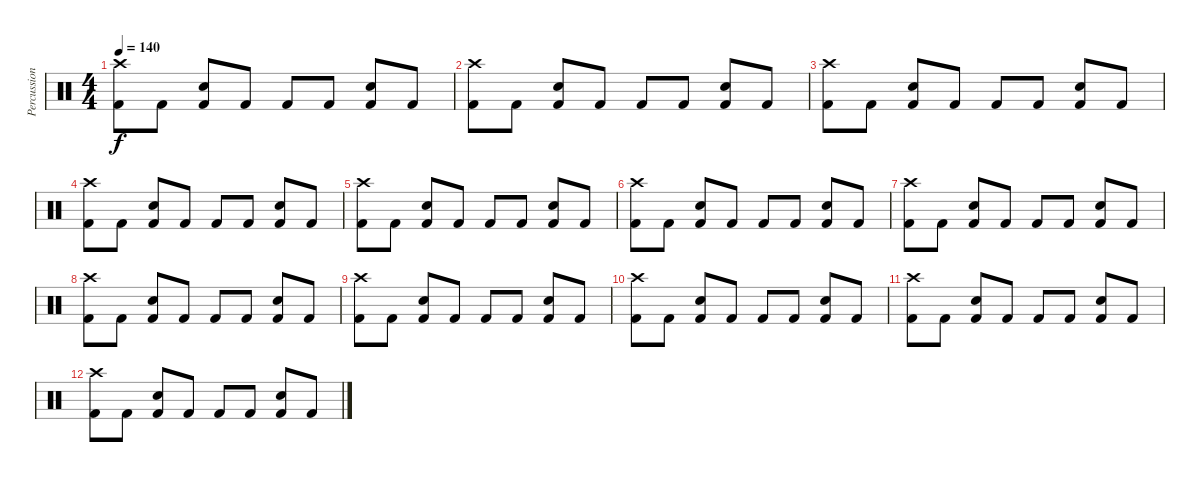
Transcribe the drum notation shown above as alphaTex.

\track ("Percussion" "Percussion") {instrument percussion}
\staff {score}
\articulation defaults
\ts (4 4)
\tempo 140
\clef neutral
\ks c
("Crash high (hit)" "Kick (hit) 2").8{dy f} "Kick (hit) 2".8 ("Snare (hit) 2" "Kick (hit) 2").8 "Kick (hit) 2".8 "Kick (hit) 2".8 "Kick (hit) 2".8 ("Snare (hit) 2" "Kick (hit) 2").8 "Kick (hit) 2".8 |
("Crash high (hit)" "Kick (hit) 2").8 "Kick (hit) 2".8 ("Snare (hit) 2" "Kick (hit) 2").8 "Kick (hit) 2".8 "Kick (hit) 2".8 "Kick (hit) 2".8 ("Snare (hit) 2" "Kick (hit) 2").8 "Kick (hit) 2".8 |
("Crash high (hit)" "Kick (hit) 2").8 "Kick (hit) 2".8 ("Snare (hit) 2" "Kick (hit) 2").8 "Kick (hit) 2".8 "Kick (hit) 2".8 "Kick (hit) 2".8 ("Snare (hit) 2" "Kick (hit) 2").8 "Kick (hit) 2".8 |
("Crash high (hit)" "Kick (hit) 2").8 "Kick (hit) 2".8 ("Snare (hit) 2" "Kick (hit) 2").8 "Kick (hit) 2".8 "Kick (hit) 2".8 "Kick (hit) 2".8 ("Snare (hit) 2" "Kick (hit) 2").8 "Kick (hit) 2".8 |
("Crash high (hit)" "Kick (hit) 2").8 "Kick (hit) 2".8 ("Snare (hit) 2" "Kick (hit) 2").8 "Kick (hit) 2".8 "Kick (hit) 2".8 "Kick (hit) 2".8 ("Snare (hit) 2" "Kick (hit) 2").8 "Kick (hit) 2".8 |
("Crash high (hit)" "Kick (hit) 2").8 "Kick (hit) 2".8 ("Snare (hit) 2" "Kick (hit) 2").8 "Kick (hit) 2".8 "Kick (hit) 2".8 "Kick (hit) 2".8 ("Snare (hit) 2" "Kick (hit) 2").8 "Kick (hit) 2".8 |
("Crash high (hit)" "Kick (hit) 2").8 "Kick (hit) 2".8 ("Snare (hit) 2" "Kick (hit) 2").8 "Kick (hit) 2".8 "Kick (hit) 2".8 "Kick (hit) 2".8 ("Snare (hit) 2" "Kick (hit) 2").8 "Kick (hit) 2".8 |
("Crash high (hit)" "Kick (hit) 2").8 "Kick (hit) 2".8 ("Snare (hit) 2" "Kick (hit) 2").8 "Kick (hit) 2".8 "Kick (hit) 2".8 "Kick (hit) 2".8 ("Snare (hit) 2" "Kick (hit) 2").8 "Kick (hit) 2".8 |
("Crash high (hit)" "Kick (hit) 2").8 "Kick (hit) 2".8 ("Snare (hit) 2" "Kick (hit) 2").8 "Kick (hit) 2".8 "Kick (hit) 2".8 "Kick (hit) 2".8 ("Snare (hit) 2" "Kick (hit) 2").8 "Kick (hit) 2".8 |
("Crash high (hit)" "Kick (hit) 2").8 "Kick (hit) 2".8 ("Snare (hit) 2" "Kick (hit) 2").8 "Kick (hit) 2".8 "Kick (hit) 2".8 "Kick (hit) 2".8 ("Snare (hit) 2" "Kick (hit) 2").8 "Kick (hit) 2".8 |
("Crash high (hit)" "Kick (hit) 2").8 "Kick (hit) 2".8 ("Snare (hit) 2" "Kick (hit) 2").8 "Kick (hit) 2".8 "Kick (hit) 2".8 "Kick (hit) 2".8 ("Snare (hit) 2" "Kick (hit) 2").8 "Kick (hit) 2".8 |
("Crash high (hit)" "Kick (hit) 2").8 "Kick (hit) 2".8 ("Snare (hit) 2" "Kick (hit) 2").8 "Kick (hit) 2".8 "Kick (hit) 2".8 "Kick (hit) 2".8 ("Snare (hit) 2" "Kick (hit) 2").8 "Kick (hit) 2".8
